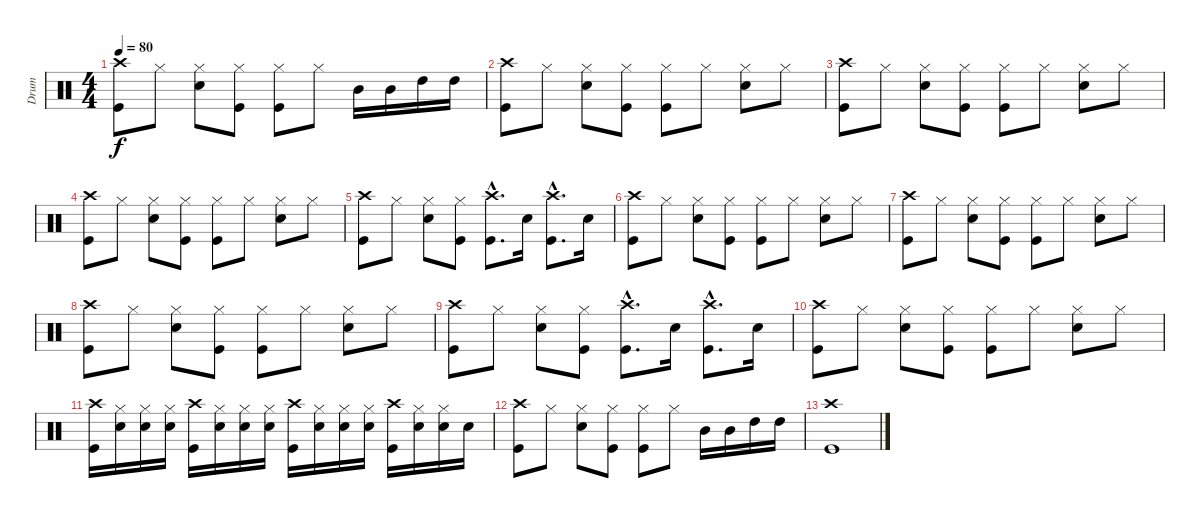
\track ("Drum" "Drum") {instrument percussion}
\staff {score}
\articulation defaults
\ts (4 4)
\tempo 80
\clef neutral
\ks c
("Crash high (hit)" "Kick (hit)").8{dy f} "Hi-Hat (closed)".8 ("Hi-Hat (closed)" "Snare (hit) 2").8 ("Hi-Hat (closed)" "Kick (hit)").8 ("Hi-Hat (closed)" "Kick (hit)").8 "Hi-Hat (closed)".8 "Mid Tom (hit)".16 "Mid Tom (hit)".16 "High Tom (hit)".16 "High Tom (hit)".16 |
("Crash high (hit)" "Kick (hit)").8 "Hi-Hat (closed)".8 ("Hi-Hat (closed)" "Snare (hit) 2").8 ("Hi-Hat (closed)" "Kick (hit)").8 ("Hi-Hat (closed)" "Kick (hit)").8 "Hi-Hat (closed)".8 ("Hi-Hat (closed)" "Snare (hit) 2").8 "Hi-Hat (closed)".8 |
("Crash high (hit)" "Kick (hit)").8 "Hi-Hat (closed)".8 ("Hi-Hat (closed)" "Snare (hit) 2").8 ("Hi-Hat (closed)" "Kick (hit)").8 ("Hi-Hat (closed)" "Kick (hit)").8 "Hi-Hat (closed)".8 ("Hi-Hat (closed)" "Snare (hit) 2").8 "Hi-Hat (closed)".8 |
("Crash high (hit)" "Kick (hit)").8 "Hi-Hat (closed)".8 ("Hi-Hat (closed)" "Snare (hit) 2").8 ("Hi-Hat (closed)" "Kick (hit)").8 ("Hi-Hat (closed)" "Kick (hit)").8 "Hi-Hat (closed)".8 ("Hi-Hat (closed)" "Snare (hit) 2").8 "Hi-Hat (closed)".8 |
("Crash high (hit)" "Kick (hit)").8 "Hi-Hat (closed)".8 ("Hi-Hat (closed)" "Snare (hit) 2").8 ("Hi-Hat (closed)" "Kick (hit)").8 ("Crash high (hit)"{hac} "Kick (hit)"{hac}).8{d} "Snare (hit) 2".16 ("Crash high (hit)"{hac} "Kick (hit)"{hac}).8{d} "Snare (hit) 2".16 |
("Crash high (hit)" "Kick (hit)").8 "Hi-Hat (closed)".8 ("Hi-Hat (closed)" "Snare (hit) 2").8 ("Hi-Hat (closed)" "Kick (hit)").8 ("Hi-Hat (closed)" "Kick (hit)").8 "Hi-Hat (closed)".8 ("Hi-Hat (closed)" "Snare (hit) 2").8 "Hi-Hat (closed)".8 |
("Crash high (hit)" "Kick (hit)").8 "Hi-Hat (closed)".8 ("Hi-Hat (closed)" "Snare (hit) 2").8 ("Hi-Hat (closed)" "Kick (hit)").8 ("Hi-Hat (closed)" "Kick (hit)").8 "Hi-Hat (closed)".8 ("Hi-Hat (closed)" "Snare (hit) 2").8 "Hi-Hat (closed)".8 |
("Crash high (hit)" "Kick (hit)").8 "Hi-Hat (closed)".8 ("Hi-Hat (closed)" "Snare (hit) 2").8 ("Hi-Hat (closed)" "Kick (hit)").8 ("Hi-Hat (closed)" "Kick (hit)").8 "Hi-Hat (closed)".8 ("Hi-Hat (closed)" "Snare (hit) 2").8 "Hi-Hat (closed)".8 |
("Crash high (hit)" "Kick (hit)").8 "Hi-Hat (closed)".8 ("Hi-Hat (closed)" "Snare (hit) 2").8 ("Hi-Hat (closed)" "Kick (hit)").8 ("Crash high (hit)"{hac} "Kick (hit)"{hac}).8{d} "Snare (hit) 2".16 ("Crash high (hit)"{hac} "Kick (hit)"{hac}).8{d} "Snare (hit) 2".16 |
("Crash high (hit)" "Kick (hit)").8 "Hi-Hat (closed)".8 ("Hi-Hat (closed)" "Snare (hit) 2").8 ("Hi-Hat (closed)" "Kick (hit)").8 ("Hi-Hat (closed)" "Kick (hit)").8 "Hi-Hat (closed)".8 ("Hi-Hat (closed)" "Snare (hit) 2").8 "Hi-Hat (closed)".8 |
("Crash high (hit)" "Kick (hit)").16 ("Hi-Hat (closed)" "Snare (hit) 2").16 ("Hi-Hat (closed)" "Snare (hit) 2").16 ("Hi-Hat (closed)" "Snare (hit) 2").16 ("Crash high (hit)" "Kick (hit)").16 ("Hi-Hat (closed)" "Snare (hit) 2").16 ("Hi-Hat (closed)" "Snare (hit) 2").16 ("Hi-Hat (closed)" "Snare (hit) 2").16 ("Crash high (hit)" "Kick (hit)").16 ("Hi-Hat (closed)" "Snare (hit) 2").16 ("Hi-Hat (closed)" "Snare (hit) 2").16 ("Hi-Hat (closed)" "Snare (hit) 2").16 ("Crash high (hit)" "Kick (hit)").16 ("Hi-Hat (closed)" "Snare (hit) 2").16 ("Hi-Hat (closed)" "Snare (hit) 2").16 "Snare (hit) 2".16 |
("Crash high (hit)" "Kick (hit)").8 "Hi-Hat (closed)".8 ("Hi-Hat (closed)" "Snare (hit) 2").8 ("Hi-Hat (closed)" "Kick (hit)").8 ("Hi-Hat (closed)" "Kick (hit)").8 "Hi-Hat (closed)".8 "Mid Tom (hit)".16 "Mid Tom (hit)".16 "High Tom (hit)".16 "High Tom (hit)".16 |
("Crash high (hit)" "Kick (hit)").1
